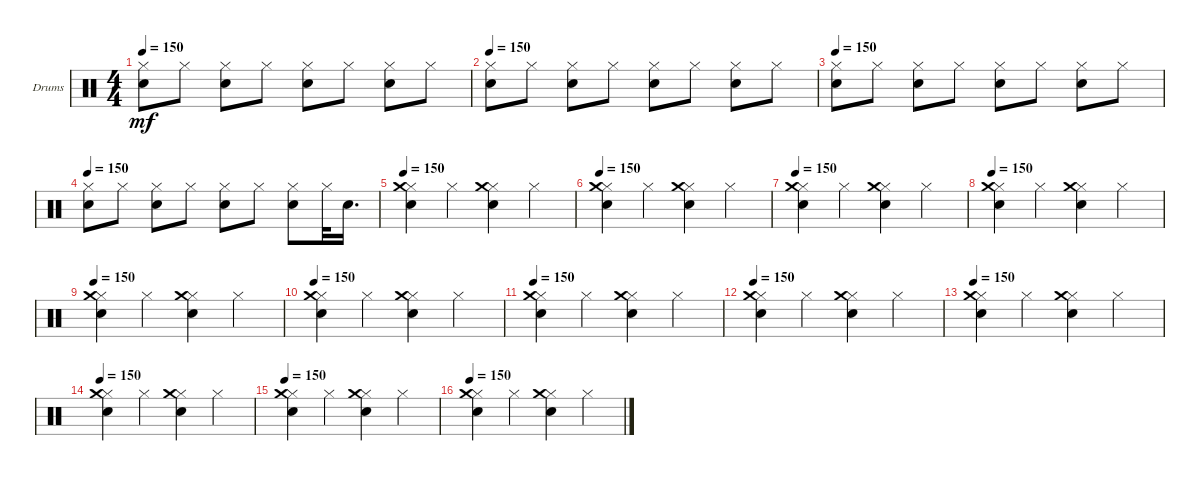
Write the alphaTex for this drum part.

\bracketExtendMode groupsimilarinstruments
\firstSystemTrackNameOrientation horizontal
\otherSystemsTrackNameOrientation horizontal
\track ("Drums" "Drums") {instrument percussion}
\staff {score}
\articulation defaults
\ts (4 4)
\tempo 150
\clef neutral
\ks c
("Snare (hit) 2" "Hi-Hat (closed)").8{dy mf} "Hi-Hat (closed)".8 ("Snare (hit) 2" "Hi-Hat (closed)").8 "Hi-Hat (closed)".8 ("Snare (hit) 2" "Hi-Hat (closed)").8 "Hi-Hat (closed)".8 ("Snare (hit) 2" "Hi-Hat (closed)").8 "Hi-Hat (closed)".8 |
\tempo 150
("Snare (hit) 2" "Hi-Hat (closed)").8 "Hi-Hat (closed)".8 ("Snare (hit) 2" "Hi-Hat (closed)").8 "Hi-Hat (closed)".8 ("Snare (hit) 2" "Hi-Hat (closed)").8 "Hi-Hat (closed)".8 ("Snare (hit) 2" "Hi-Hat (closed)").8 "Hi-Hat (closed)".8 |
\tempo 150
("Snare (hit) 2" "Hi-Hat (closed)").8 "Hi-Hat (closed)".8 ("Snare (hit) 2" "Hi-Hat (closed)").8 "Hi-Hat (closed)".8 ("Snare (hit) 2" "Hi-Hat (closed)").8 "Hi-Hat (closed)".8 ("Snare (hit) 2" "Hi-Hat (closed)").8 "Hi-Hat (closed)".8 |
\tempo 150
("Snare (hit) 2" "Hi-Hat (closed)").8 "Hi-Hat (closed)".8 ("Snare (hit) 2" "Hi-Hat (closed)").8 "Hi-Hat (closed)".8 ("Snare (hit) 2" "Hi-Hat (closed)").8 "Hi-Hat (closed)".8 ("Snare (hit) 2" "Hi-Hat (closed)").8 "Hi-Hat (closed)".32 "Snare (hit) 2".16{d} |
\tempo 150
("Snare (hit) 2" "Hi-Hat (closed)" "Crash medium (hit)").4 "Hi-Hat (closed)".4 ("Snare (hit) 2" "Hi-Hat (closed)" "Crash medium (hit)").4 "Hi-Hat (closed)".4 |
\tempo 150
("Snare (hit) 2" "Hi-Hat (closed)" "Crash medium (hit)").4 "Hi-Hat (closed)".4 ("Snare (hit) 2" "Hi-Hat (closed)" "Crash medium (hit)").4 "Hi-Hat (closed)".4 |
\tempo 150
("Snare (hit) 2" "Hi-Hat (closed)" "Crash medium (hit)").4 "Hi-Hat (closed)".4 ("Snare (hit) 2" "Hi-Hat (closed)" "Crash medium (hit)").4 "Hi-Hat (closed)".4 |
\tempo 150
("Snare (hit) 2" "Hi-Hat (closed)" "Crash medium (hit)").4 "Hi-Hat (closed)".4 ("Snare (hit) 2" "Hi-Hat (closed)" "Crash medium (hit)").4 "Hi-Hat (closed)".4 |
\tempo 150
("Snare (hit) 2" "Hi-Hat (closed)" "Crash medium (hit)").4 "Hi-Hat (closed)".4 ("Snare (hit) 2" "Hi-Hat (closed)" "Crash medium (hit)").4 "Hi-Hat (closed)".4 |
\tempo 150
("Snare (hit) 2" "Hi-Hat (closed)" "Crash medium (hit)").4 "Hi-Hat (closed)".4 ("Snare (hit) 2" "Hi-Hat (closed)" "Crash medium (hit)").4 "Hi-Hat (closed)".4 |
\tempo 150
("Snare (hit) 2" "Hi-Hat (closed)" "Crash medium (hit)").4 "Hi-Hat (closed)".4 ("Snare (hit) 2" "Hi-Hat (closed)" "Crash medium (hit)").4 "Hi-Hat (closed)".4 |
\tempo 150
("Snare (hit) 2" "Hi-Hat (closed)" "Crash medium (hit)").4 "Hi-Hat (closed)".4 ("Snare (hit) 2" "Hi-Hat (closed)" "Crash medium (hit)").4 "Hi-Hat (closed)".4 |
\tempo 150
("Snare (hit) 2" "Hi-Hat (closed)" "Crash medium (hit)").4 "Hi-Hat (closed)".4 ("Snare (hit) 2" "Hi-Hat (closed)" "Crash medium (hit)").4 "Hi-Hat (closed)".4 |
\tempo 150
("Snare (hit) 2" "Hi-Hat (closed)" "Crash medium (hit)").4 "Hi-Hat (closed)".4 ("Snare (hit) 2" "Hi-Hat (closed)" "Crash medium (hit)").4 "Hi-Hat (closed)".4 |
\tempo 150
("Snare (hit) 2" "Hi-Hat (closed)" "Crash medium (hit)").4 "Hi-Hat (closed)".4 ("Snare (hit) 2" "Hi-Hat (closed)" "Crash medium (hit)").4 "Hi-Hat (closed)".4 |
\tempo 150
("Snare (hit) 2" "Hi-Hat (closed)" "Crash medium (hit)").4 "Hi-Hat (closed)".4 ("Snare (hit) 2" "Hi-Hat (closed)" "Crash medium (hit)").4 "Hi-Hat (closed)".4
